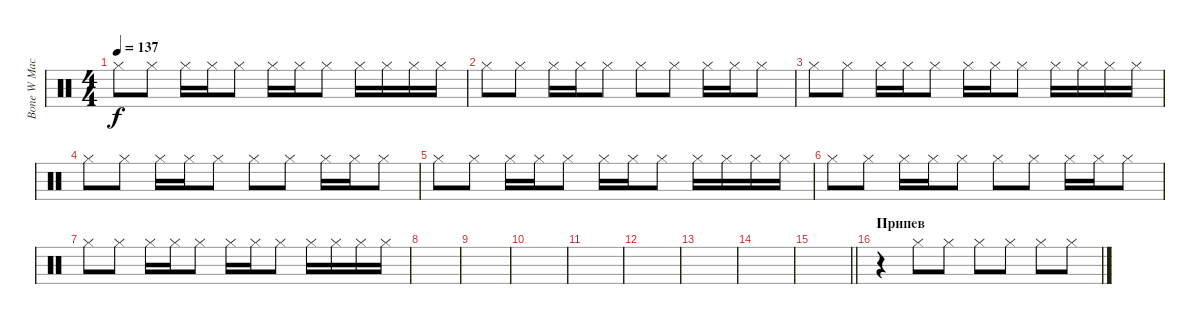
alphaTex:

\track ("Bone W Machine Cimbals" "Bone W Mac") {instrument percussion}
\staff {score}
\articulation defaults
\ts (4 4)
\tempo 137
\clef neutral
\ks c "Hi-Hat (closed)".8{dy f} "Hi-Hat (closed)".8 "Hi-Hat (closed)".16 "Hi-Hat (closed)".16 "Hi-Hat (closed)".8 "Hi-Hat (closed)".16 "Hi-Hat (closed)".16 "Hi-Hat (closed)".8 "Hi-Hat (closed)".16 "Hi-Hat (closed)".16 "Hi-Hat (closed)".16 "Hi-Hat (closed)".16
|
"Hi-Hat (closed)".8 "Hi-Hat (closed)".8 "Hi-Hat (closed)".16 "Hi-Hat (closed)".16 "Hi-Hat (closed)".8 "Hi-Hat (closed)".8 "Hi-Hat (closed)".8 "Hi-Hat (closed)".16 "Hi-Hat (closed)".16 "Hi-Hat (closed)".8 |
"Hi-Hat (closed)".8 "Hi-Hat (closed)".8 "Hi-Hat (closed)".16 "Hi-Hat (closed)".16 "Hi-Hat (closed)".8 "Hi-Hat (closed)".16 "Hi-Hat (closed)".16 "Hi-Hat (closed)".8 "Hi-Hat (closed)".16 "Hi-Hat (closed)".16 "Hi-Hat (closed)".16 "Hi-Hat (closed)".16 |
"Hi-Hat (closed)".8 "Hi-Hat (closed)".8 "Hi-Hat (closed)".16 "Hi-Hat (closed)".16 "Hi-Hat (closed)".8 "Hi-Hat (closed)".8 "Hi-Hat (closed)".8 "Hi-Hat (closed)".16 "Hi-Hat (closed)".16 "Hi-Hat (closed)".8 |
"Hi-Hat (closed)".8 "Hi-Hat (closed)".8 "Hi-Hat (closed)".16 "Hi-Hat (closed)".16 "Hi-Hat (closed)".8 "Hi-Hat (closed)".16 "Hi-Hat (closed)".16 "Hi-Hat (closed)".8 "Hi-Hat (closed)".16 "Hi-Hat (closed)".16 "Hi-Hat (closed)".16 "Hi-Hat (closed)".16 |
"Hi-Hat (closed)".8 "Hi-Hat (closed)".8 "Hi-Hat (closed)".16 "Hi-Hat (closed)".16 "Hi-Hat (closed)".8 "Hi-Hat (closed)".8 "Hi-Hat (closed)".8 "Hi-Hat (closed)".16 "Hi-Hat (closed)".16 "Hi-Hat (closed)".8 |
"Hi-Hat (closed)".8 "Hi-Hat (closed)".8 "Hi-Hat (closed)".16 "Hi-Hat (closed)".16 "Hi-Hat (closed)".8 "Hi-Hat (closed)".16 "Hi-Hat (closed)".16 "Hi-Hat (closed)".8 "Hi-Hat (closed)".16 "Hi-Hat (closed)".16 "Hi-Hat (closed)".16 "Hi-Hat (closed)".16 |
|
|
|
|
|
|
|
\barLineRight lightlight
|
\section ("" "Припев")
r.4 "Hi-Hat (closed)".8 "Hi-Hat (closed)".8 "Hi-Hat (closed)".8 "Hi-Hat (closed)".8 "Hi-Hat (closed)".8 "Hi-Hat (closed)".8
